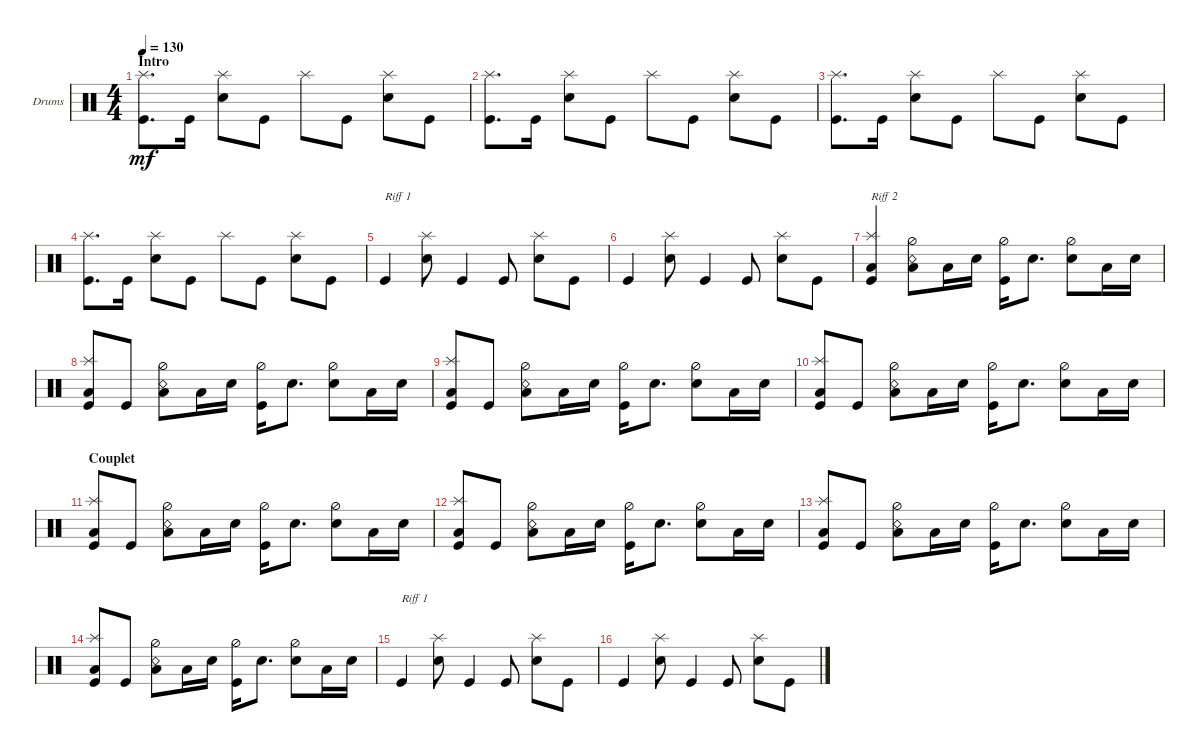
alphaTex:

\defaultSystemsLayout 4
\bracketExtendMode groupsimilarinstruments
\firstSystemTrackNameOrientation horizontal
\otherSystemsTrackNameOrientation horizontal
\track ("Drumkit" "Drums") {instrument percussion}
\staff {score}
\articulation defaults
\ts (4 4)
\section ("" "Intro")
\tempo 130
\clef neutral
\ks c
("Kick (hit)" "Splash (hit)").8{d dy mf} "Kick (hit)".16 ("Snare (hit) 2" "Splash (hit)").8 "Kick (hit)".8 "Splash (hit)".8 "Kick (hit)".8 ("Snare (hit) 2" "Splash (hit)").8 "Kick (hit)".8 |
("Kick (hit)" "Splash (hit)").8{d} "Kick (hit)".16 ("Snare (hit) 2" "Splash (hit)").8 "Kick (hit)".8 "Splash (hit)".8 "Kick (hit)".8 ("Snare (hit) 2" "Splash (hit)").8 "Kick (hit)".8 |
("Kick (hit)" "Splash (hit)").8{d} "Kick (hit)".16 ("Snare (hit) 2" "Splash (hit)").8 "Kick (hit)".8 "Splash (hit)".8 "Kick (hit)".8 ("Snare (hit) 2" "Splash (hit)").8 "Kick (hit)".8 |
("Kick (hit)" "Splash (hit)").8{d} "Kick (hit)".16 ("Snare (hit) 2" "Splash (hit)").8 "Kick (hit)".8 "Splash (hit)".8 "Kick (hit)".8 ("Snare (hit) 2" "Splash (hit)").8 "Kick (hit)".8 |
"Kick (hit)".4{txt "Riff 1"} ("Snare (hit) 2" "Splash (hit)").8 "Kick (hit)".4 "Kick (hit)".8 ("Snare (hit) 2" "Splash (hit)").8 "Kick (hit)".8 |
"Kick (hit)".4 ("Snare (hit) 2" "Splash (hit)").8 "Kick (hit)".4 "Kick (hit)".8 ("Snare (hit) 2" "Splash (hit)").8 "Kick (hit)".8 |
("Low Tom (hit)" "Kick (hit)" "Splash (hit)").4{txt "Riff 2"} ("Low Tom (hit)" "Snare (rim shot)" "Hi-Hat (half)").8 "Low Tom (hit)".16 "Snare (hit) 2".16 ("Kick (hit)" "Hi-Hat (half)").16 "Snare (hit) 2".8{d} ("Hi-Hat (half)" "Snare (hit) 2").8 "Low Tom (hit)".16 "Snare (hit) 2".16 |
("Low Tom (hit)" "Kick (hit)" "Splash (hit)").8 "Kick (hit)".8 ("Low Tom (hit)" "Snare (rim shot)" "Hi-Hat (half)").8 "Low Tom (hit)".16 "Snare (hit) 2".16 ("Kick (hit)" "Hi-Hat (half)").16 "Snare (hit) 2".8{d} ("Hi-Hat (half)" "Snare (hit) 2").8 "Low Tom (hit)".16 "Snare (hit) 2".16 |
("Low Tom (hit)" "Kick (hit)" "Splash (hit)").8 "Kick (hit)".8 ("Low Tom (hit)" "Snare (rim shot)" "Hi-Hat (half)").8 "Low Tom (hit)".16 "Snare (hit) 2".16 ("Kick (hit)" "Hi-Hat (half)").16 "Snare (hit) 2".8{d} ("Hi-Hat (half)" "Snare (hit) 2").8 "Low Tom (hit)".16 "Snare (hit) 2".16 |
("Low Tom (hit)" "Kick (hit)" "Splash (hit)").8 "Kick (hit)".8 ("Low Tom (hit)" "Snare (rim shot)" "Hi-Hat (half)").8 "Low Tom (hit)".16 "Snare (hit) 2".16 ("Kick (hit)" "Hi-Hat (half)").16 "Snare (hit) 2".8{d} ("Hi-Hat (half)" "Snare (hit) 2").8 "Low Tom (hit)".16 "Snare (hit) 2".16 |
\section ("" "Couplet")
("Low Tom (hit)" "Kick (hit)" "Splash (hit)").8 "Kick (hit)".8 ("Low Tom (hit)" "Snare (rim shot)" "Hi-Hat (half)").8 "Low Tom (hit)".16 "Snare (hit) 2".16 ("Kick (hit)" "Hi-Hat (half)").16 "Snare (hit) 2".8{d} ("Hi-Hat (half)" "Snare (hit) 2").8 "Low Tom (hit)".16 "Snare (hit) 2".16 |
("Low Tom (hit)" "Kick (hit)" "Splash (hit)").8 "Kick (hit)".8 ("Low Tom (hit)" "Snare (rim shot)" "Hi-Hat (half)").8 "Low Tom (hit)".16 "Snare (hit) 2".16 ("Kick (hit)" "Hi-Hat (half)").16 "Snare (hit) 2".8{d} ("Hi-Hat (half)" "Snare (hit) 2").8 "Low Tom (hit)".16 "Snare (hit) 2".16 |
("Low Tom (hit)" "Kick (hit)" "Splash (hit)").8 "Kick (hit)".8 ("Low Tom (hit)" "Snare (rim shot)" "Hi-Hat (half)").8 "Low Tom (hit)".16 "Snare (hit) 2".16 ("Kick (hit)" "Hi-Hat (half)").16 "Snare (hit) 2".8{d} ("Hi-Hat (half)" "Snare (hit) 2").8 "Low Tom (hit)".16 "Snare (hit) 2".16 |
("Low Tom (hit)" "Kick (hit)" "Splash (hit)").8 "Kick (hit)".8 ("Low Tom (hit)" "Snare (rim shot)" "Hi-Hat (half)").8 "Low Tom (hit)".16 "Snare (hit) 2".16 ("Kick (hit)" "Hi-Hat (half)").16 "Snare (hit) 2".8{d} ("Hi-Hat (half)" "Snare (hit) 2").8 "Low Tom (hit)".16 "Snare (hit) 2".16 |
"Kick (hit)".4{txt "Riff 1"} ("Snare (hit) 2" "Splash (hit)").8 "Kick (hit)".4 "Kick (hit)".8 ("Snare (hit) 2" "Splash (hit)").8 "Kick (hit)".8 |
"Kick (hit)".4 ("Snare (hit) 2" "Splash (hit)").8 "Kick (hit)".4 "Kick (hit)".8 ("Snare (hit) 2" "Splash (hit)").8 "Kick (hit)".8
